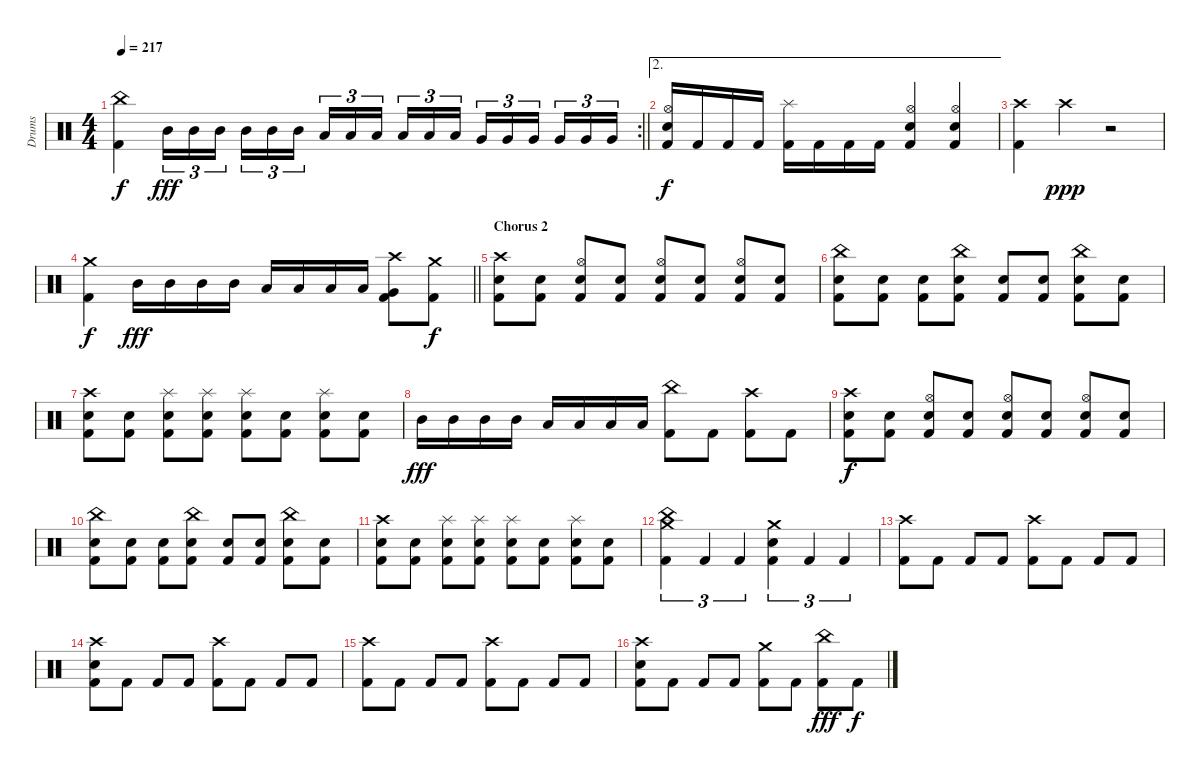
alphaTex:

\track ("Drums" "Drums") {instrument percussion}
\staff {score}
\articulation defaults
\rc 2
\ts (4 4)
\tempo 217
\clef neutral
\barLineRight lightlight
\ks c
("China (hit)" "Kick (hit) 2").4{dy f} "Mid Tom (hit)".16{tu (3 2) dy fff} "Mid Tom (hit)".16{tu (3 2)} "Mid Tom (hit)".16{tu (3 2) beam splitsecondary} "Mid Tom (hit)".16{tu (3 2)} "Mid Tom (hit)".16{tu (3 2)} "Mid Tom (hit)".16{tu (3 2)} "Low Tom (hit)".16{tu (3 2)} "Low Tom (hit)".16{tu (3 2)} "Low Tom (hit)".16{tu (3 2) beam splitsecondary} "Low Tom (hit)".16{tu (3 2)} "Low Tom (hit)".16{tu (3 2)} "Low Tom (hit)".16{tu (3 2)} "Very Low Tom (hit)".16{tu (3 2)} "Very Low Tom (hit)".16{tu (3 2)} "Very Low Tom (hit)".16{tu (3 2) beam splitsecondary} "Very Low Tom (hit)".16{tu (3 2)} "Very Low Tom (hit)".16{tu (3 2)} "Very Low Tom (hit)".16{tu (3 2)} |
\ae 2
("Hi-Hat (open)" "Electric Snare (hit)" "Kick (hit) 2").16{dy f} "Kick (hit) 2".16 "Kick (hit) 2".16 "Kick (hit) 2".16 ("Splash (hit)" "Kick (hit) 2").16 "Kick (hit) 2".16 "Kick (hit) 2".16 "Kick (hit) 2".16 ("Hi-Hat (open)" "Electric Snare (hit)" "Kick (hit) 2").4 ("Hi-Hat (open)" "Electric Snare (hit)" "Kick (hit) 2").4 |
("Crash high (hit)" "Kick (hit) 2").4 "Crash high (hit)".4{dy ppp} r.2 |
\barLineRight lightlight
("Crash medium (hit)" "Kick (hit) 2").4{dy f} "Mid Tom (hit)".16{dy fff} "Mid Tom (hit)".16 "Mid Tom (hit)".16 "Mid Tom (hit)".16 "Low Tom (hit)".16 "Low Tom (hit)".16 "Low Tom (hit)".16 "Low Tom (hit)".16 ("Crash high (hit)" "Very Low Tom (hit)" "Kick (hit) 2").8 ("Crash medium (hit)" "Kick (hit) 2").8{dy f} |
\section ("" "Chorus 2")
("Crash high (hit)" "Electric Snare (hit)" "Kick (hit) 2").8 ("Electric Snare (hit)" "Kick (hit) 2").8 ("Hi-Hat (open)" "Electric Snare (hit)" "Kick (hit) 2").8 ("Electric Snare (hit)" "Kick (hit) 2").8 ("Hi-Hat (open)" "Electric Snare (hit)" "Kick (hit) 2").8 ("Electric Snare (hit)" "Kick (hit) 2").8 ("Hi-Hat (open)" "Electric Snare (hit)" "Kick (hit) 2").8 ("Electric Snare (hit)" "Kick (hit) 2").8 |
("China (hit)" "Electric Snare (hit)" "Kick (hit) 2").8 ("Electric Snare (hit)" "Kick (hit) 2").8 ("Electric Snare (hit)" "Kick (hit) 2").8 ("China (hit)" "Electric Snare (hit)" "Kick (hit) 2").8 ("Electric Snare (hit)" "Kick (hit) 2").8 ("Electric Snare (hit)" "Kick (hit) 2").8 ("China (hit)" "Electric Snare (hit)" "Kick (hit) 2").8 ("Electric Snare (hit)" "Kick (hit) 2").8 |
("Crash high (hit)" "Electric Snare (hit)" "Kick (hit) 2").8 ("Electric Snare (hit)" "Kick (hit) 2").8 ("Splash (hit)" "Electric Snare (hit)" "Kick (hit) 2").8 ("Splash (hit)" "Electric Snare (hit)" "Kick (hit) 2").8 ("Splash (hit)" "Electric Snare (hit)" "Kick (hit) 2").8 ("Electric Snare (hit)" "Kick (hit) 2").8 ("Splash (hit)" "Electric Snare (hit)" "Kick (hit) 2").8 ("Electric Snare (hit)" "Kick (hit) 2").8 |
"Mid Tom (hit)".16{dy fff} "Mid Tom (hit)".16 "Mid Tom (hit)".16 "Mid Tom (hit)".16 "Low Tom (hit)".16 "Low Tom (hit)".16 "Low Tom (hit)".16 "Low Tom (hit)".16 ("China (hit)" "Kick (hit) 2").8 "Kick (hit) 2".8 ("Crash high (hit)" "Kick (hit) 2").8 "Kick (hit) 2".8 |
("Crash high (hit)" "Electric Snare (hit)" "Kick (hit) 2").8{dy f} ("Electric Snare (hit)" "Kick (hit) 2").8 ("Hi-Hat (open)" "Electric Snare (hit)" "Kick (hit) 2").8 ("Electric Snare (hit)" "Kick (hit) 2").8 ("Hi-Hat (open)" "Electric Snare (hit)" "Kick (hit) 2").8 ("Electric Snare (hit)" "Kick (hit) 2").8 ("Hi-Hat (open)" "Electric Snare (hit)" "Kick (hit) 2").8 ("Electric Snare (hit)" "Kick (hit) 2").8 |
("China (hit)" "Electric Snare (hit)" "Kick (hit) 2").8 ("Electric Snare (hit)" "Kick (hit) 2").8 ("Electric Snare (hit)" "Kick (hit) 2").8 ("China (hit)" "Electric Snare (hit)" "Kick (hit) 2").8 ("Electric Snare (hit)" "Kick (hit) 2").8 ("Electric Snare (hit)" "Kick (hit) 2").8 ("China (hit)" "Electric Snare (hit)" "Kick (hit) 2").8 ("Electric Snare (hit)" "Kick (hit) 2").8 |
("Crash high (hit)" "Electric Snare (hit)" "Kick (hit) 2").8 ("Electric Snare (hit)" "Kick (hit) 2").8 ("Splash (hit)" "Electric Snare (hit)" "Kick (hit) 2").8 ("Splash (hit)" "Electric Snare (hit)" "Kick (hit) 2").8 ("Splash (hit)" "Electric Snare (hit)" "Kick (hit) 2").8 ("Electric Snare (hit)" "Kick (hit) 2").8 ("Splash (hit)" "Electric Snare (hit)" "Kick (hit) 2").8 ("Electric Snare (hit)" "Kick (hit) 2").8 |
("Crash medium (hit)" "China (hit)" "Kick (hit) 2").4{tu (3 2)} "Kick (hit) 2".4{tu (3 2)} "Kick (hit) 2".4{tu (3 2)} ("Crash medium (hit)" "Electric Snare (hit)" "Kick (hit) 2").4{tu (3 2)} "Kick (hit) 2".4{tu (3 2)} "Kick (hit) 2".4{tu (3 2)} |
("Crash high (hit)" "Kick (hit) 2").8 "Kick (hit) 2".8 "Kick (hit) 2".8 "Kick (hit) 2".8 ("Crash high (hit)" "Kick (hit) 2").8 "Kick (hit) 2".8 "Kick (hit) 2".8 "Kick (hit) 2".8 |
("Crash high (hit)" "Electric Snare (hit)" "Kick (hit) 2").8 "Kick (hit) 2".8 "Kick (hit) 2".8 "Kick (hit) 2".8 ("Crash high (hit)" "Kick (hit) 2").8 "Kick (hit) 2".8 "Kick (hit) 2".8 "Kick (hit) 2".8 |
("Crash high (hit)" "Kick (hit) 2").8 "Kick (hit) 2".8 "Kick (hit) 2".8 "Kick (hit) 2".8 ("Crash high (hit)" "Kick (hit) 2").8 "Kick (hit) 2".8 "Kick (hit) 2".8 "Kick (hit) 2".8 |
("Crash high (hit)" "Electric Snare (hit)" "Kick (hit) 2").8 "Kick (hit) 2".8 "Kick (hit) 2".8 "Kick (hit) 2".8 ("Crash medium (hit)" "Kick (hit) 2").8 "Kick (hit) 2".8 ("China (hit)" "Kick (hit) 2").8{dy fff} "Kick (hit) 2".8{dy f}
